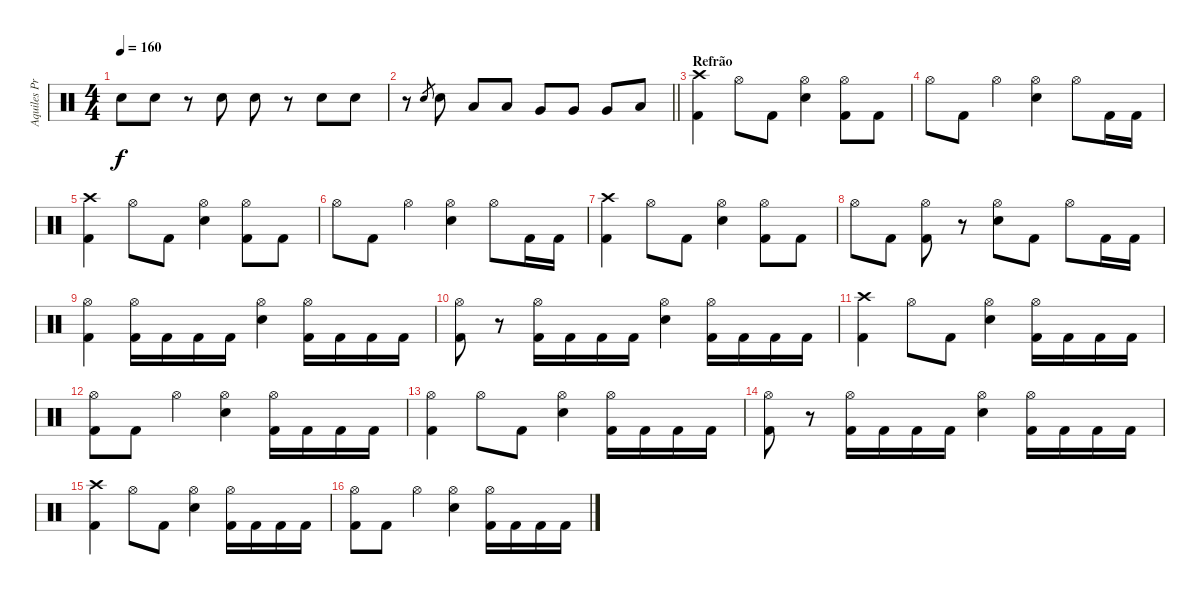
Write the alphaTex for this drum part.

\track ("Aquiles Priester" "Aquiles Pr") {instrument percussion}
\staff {score}
\articulation defaults
\ts (4 4)
\tempo 160
\clef neutral
\ks c "Electric Snare (hit)".8{dy f} "Electric Snare (hit)".8
r.8 "Electric Snare (hit)".8 "Electric Snare (hit)".8 r.8 "Electric Snare (hit)".8 "Electric Snare (hit)".8 |
\barLineRight lightlight
r.8 "Electric Snare (hit)".8{gr} "Electric Snare (hit)".8 "Low Tom (hit)".8 "Low Tom (hit)".8 "Very Low Tom (hit)".8 "Very Low Tom (hit)".8 "Very Low Tom (hit)".8 "Low Floor Tom (hit)".8 |
\section ("" "Refrão")
("Crash high (hit)" "Kick (hit) 2").4 "Hi-Hat (open)".8 "Kick (hit) 2".8 ("Hi-Hat (open)" "Electric Snare (hit)").4 ("Hi-Hat (open)" "Kick (hit) 2").8 "Kick (hit) 2".8 |
"Hi-Hat (open)".8 "Kick (hit) 2".8 "Hi-Hat (open)".4 ("Hi-Hat (open)" "Electric Snare (hit)").4 "Hi-Hat (open)".8 "Kick (hit) 2".16 "Kick (hit) 2".16 |
("Crash high (hit)" "Kick (hit) 2").4 "Hi-Hat (open)".8 "Kick (hit) 2".8 ("Hi-Hat (open)" "Electric Snare (hit)").4 ("Hi-Hat (open)" "Kick (hit) 2").8 "Kick (hit) 2".8 |
"Hi-Hat (open)".8 "Kick (hit) 2".8 "Hi-Hat (open)".4 ("Hi-Hat (open)" "Electric Snare (hit)").4 "Hi-Hat (open)".8 "Kick (hit) 2".16 "Kick (hit) 2".16 |
("Crash high (hit)" "Kick (hit) 2").4 "Hi-Hat (open)".8 "Kick (hit) 2".8 ("Hi-Hat (open)" "Electric Snare (hit)").4 ("Hi-Hat (open)" "Kick (hit) 2").8 "Kick (hit) 2".8 |
"Hi-Hat (open)".8 "Kick (hit) 2".8 ("Hi-Hat (open)" "Kick (hit) 2").8 r.8 ("Hi-Hat (open)" "Electric Snare (hit)").8 "Kick (hit) 2".8 "Hi-Hat (open)".8 "Kick (hit) 2".16 "Kick (hit) 2".16 |
("Hi-Hat (open)" "Kick (hit) 2").4 ("Hi-Hat (open)" "Kick (hit) 2").16 "Kick (hit) 2".16 "Kick (hit) 2".16 "Kick (hit) 2".16 ("Hi-Hat (open)" "Electric Snare (hit)").4 ("Hi-Hat (open)" "Kick (hit) 2").16 "Kick (hit) 2".16 "Kick (hit) 2".16 "Kick (hit) 2".16 |
("Hi-Hat (open)" "Kick (hit) 2").8 r.8 ("Hi-Hat (open)" "Kick (hit) 2").16 "Kick (hit) 2".16 "Kick (hit) 2".16 "Kick (hit) 2".16 ("Hi-Hat (open)" "Electric Snare (hit)").4 ("Hi-Hat (open)" "Kick (hit) 2").16 "Kick (hit) 2".16 "Kick (hit) 2".16 "Kick (hit) 2".16 |
("Crash high (hit)" "Kick (hit) 2").4 "Hi-Hat (open)".8 "Kick (hit) 2".8 ("Hi-Hat (open)" "Electric Snare (hit)").4 ("Hi-Hat (open)" "Kick (hit) 2").16 "Kick (hit) 2".16 "Kick (hit) 2".16 "Kick (hit) 2".16 |
("Hi-Hat (open)" "Kick (hit) 2").8 "Kick (hit) 2".8 "Hi-Hat (open)".4 ("Hi-Hat (open)" "Electric Snare (hit)").4 ("Hi-Hat (open)" "Kick (hit) 2").16 "Kick (hit) 2".16 "Kick (hit) 2".16 "Kick (hit) 2".16 |
("Hi-Hat (open)" "Kick (hit) 2").4 "Hi-Hat (open)".8 "Kick (hit) 2".8 ("Hi-Hat (open)" "Electric Snare (hit)").4 ("Hi-Hat (open)" "Kick (hit) 2").16 "Kick (hit) 2".16 "Kick (hit) 2".16 "Kick (hit) 2".16 |
("Hi-Hat (open)" "Kick (hit) 2").8 r.8 ("Hi-Hat (open)" "Kick (hit) 2").16 "Kick (hit) 2".16 "Kick (hit) 2".16 "Kick (hit) 2".16 ("Hi-Hat (open)" "Electric Snare (hit)").4 ("Hi-Hat (open)" "Kick (hit) 2").16 "Kick (hit) 2".16 "Kick (hit) 2".16 "Kick (hit) 2".16 |
("Crash high (hit)" "Kick (hit) 2").4 "Hi-Hat (open)".8 "Kick (hit) 2".8 ("Hi-Hat (open)" "Electric Snare (hit)").4 ("Hi-Hat (open)" "Kick (hit) 2").16 "Kick (hit) 2".16 "Kick (hit) 2".16 "Kick (hit) 2".16 |
("Hi-Hat (open)" "Kick (hit) 2").8 "Kick (hit) 2".8 "Hi-Hat (open)".4 ("Hi-Hat (open)" "Electric Snare (hit)").4 ("Hi-Hat (open)" "Kick (hit) 2").16 "Kick (hit) 2".16 "Kick (hit) 2".16 "Kick (hit) 2".16
